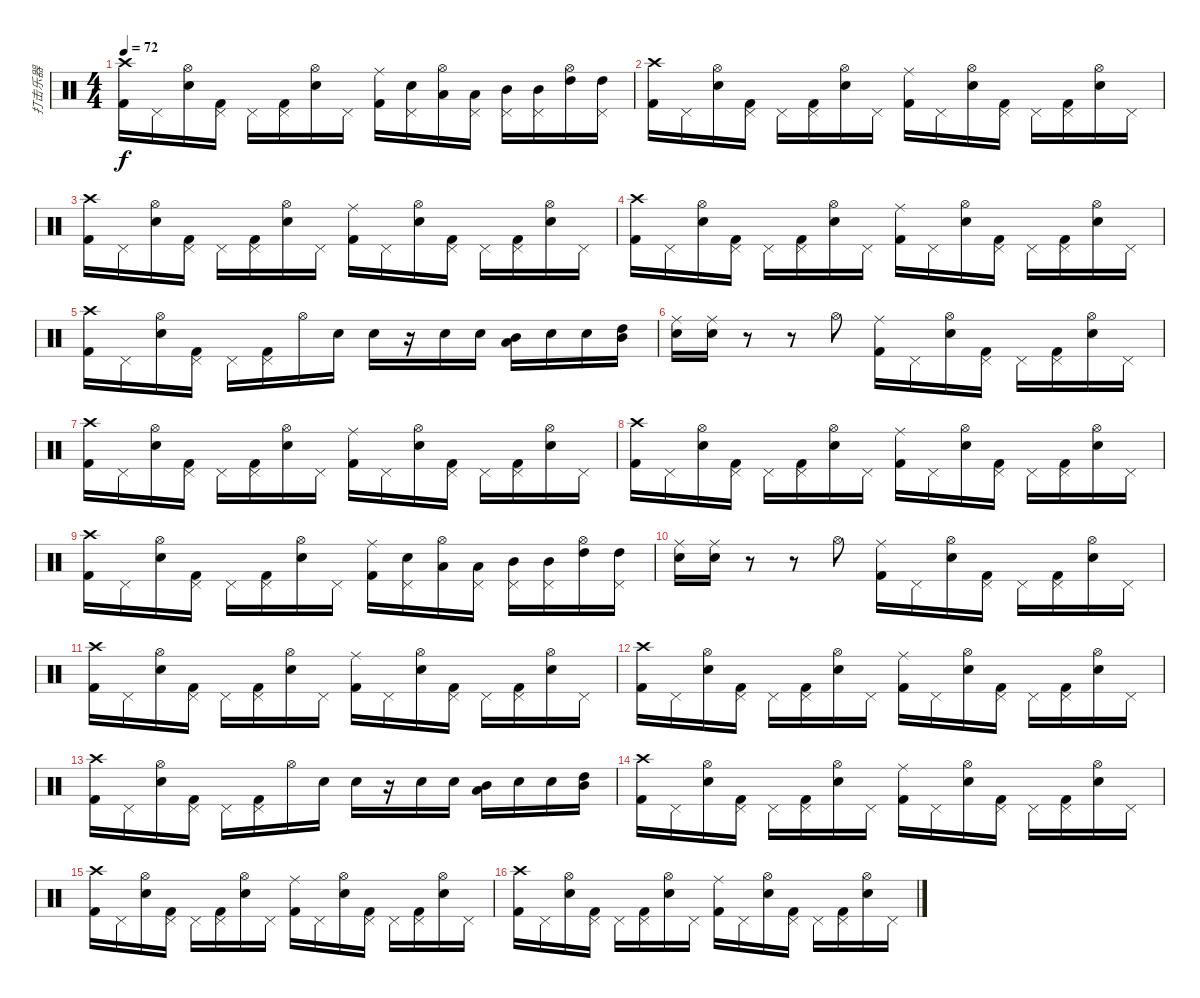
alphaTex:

\track ("打击乐器" "打击乐器") {instrument percussion}
\staff {score}
\articulation defaults
\ts (4 4)
\tempo 72
\clef neutral
\ks c
("Crash high (hit)" "Kick (hit) 2").16{dy f} "Pedal Hi-Hat (hit)".16 ("Hi-Hat (open)" "Electric Snare (hit)").16 ("Pedal Hi-Hat (hit)" "Kick (hit) 2").16 "Pedal Hi-Hat (hit)".16 ("Pedal Hi-Hat (hit)" "Kick (hit) 2").16 ("Hi-Hat (open)" "Electric Snare (hit)").16 "Pedal Hi-Hat (hit)".16 ("Ride (middle)" "Kick (hit) 2").16 ("Pedal Hi-Hat (hit)" "Electric Snare (hit)").16 ("Hi-Hat (open)" "Low Tom (hit)").16 ("Pedal Hi-Hat (hit)" "Low Tom (hit)").16 ("Pedal Hi-Hat (hit)" "Mid Tom (hit)").16 ("Pedal Hi-Hat (hit)" "Mid Tom (hit)").16 ("Hi-Hat (open)" "High Tom (hit)").16 ("Pedal Hi-Hat (hit)" "High Tom (hit)").16 |
("Crash high (hit)" "Kick (hit) 2").16 "Pedal Hi-Hat (hit)".16 ("Hi-Hat (open)" "Electric Snare (hit)").16 ("Pedal Hi-Hat (hit)" "Kick (hit) 2").16 "Pedal Hi-Hat (hit)".16 ("Pedal Hi-Hat (hit)" "Kick (hit) 2").16 ("Hi-Hat (open)" "Electric Snare (hit)").16 "Pedal Hi-Hat (hit)".16 ("Ride (middle)" "Kick (hit) 2").16 "Pedal Hi-Hat (hit)".16 ("Hi-Hat (open)" "Electric Snare (hit)").16 ("Pedal Hi-Hat (hit)" "Kick (hit) 2").16 "Pedal Hi-Hat (hit)".16 ("Pedal Hi-Hat (hit)" "Kick (hit) 2").16 ("Hi-Hat (open)" "Electric Snare (hit)").16 "Pedal Hi-Hat (hit)".16 |
("Crash high (hit)" "Kick (hit) 2").16 "Pedal Hi-Hat (hit)".16 ("Hi-Hat (open)" "Electric Snare (hit)").16 ("Pedal Hi-Hat (hit)" "Kick (hit) 2").16 "Pedal Hi-Hat (hit)".16 ("Pedal Hi-Hat (hit)" "Kick (hit) 2").16 ("Hi-Hat (open)" "Electric Snare (hit)").16 "Pedal Hi-Hat (hit)".16 ("Ride (middle)" "Kick (hit) 2").16 "Pedal Hi-Hat (hit)".16 ("Hi-Hat (open)" "Electric Snare (hit)").16 ("Pedal Hi-Hat (hit)" "Kick (hit) 2").16 "Pedal Hi-Hat (hit)".16 ("Pedal Hi-Hat (hit)" "Kick (hit) 2").16 ("Hi-Hat (open)" "Electric Snare (hit)").16 "Pedal Hi-Hat (hit)".16 |
("Crash high (hit)" "Kick (hit) 2").16 "Pedal Hi-Hat (hit)".16 ("Hi-Hat (open)" "Electric Snare (hit)").16 ("Pedal Hi-Hat (hit)" "Kick (hit) 2").16 "Pedal Hi-Hat (hit)".16 ("Pedal Hi-Hat (hit)" "Kick (hit) 2").16 ("Hi-Hat (open)" "Electric Snare (hit)").16 "Pedal Hi-Hat (hit)".16 ("Ride (middle)" "Kick (hit) 2").16 "Pedal Hi-Hat (hit)".16 ("Hi-Hat (open)" "Electric Snare (hit)").16 ("Pedal Hi-Hat (hit)" "Kick (hit) 2").16 "Pedal Hi-Hat (hit)".16 ("Pedal Hi-Hat (hit)" "Kick (hit) 2").16 ("Hi-Hat (open)" "Electric Snare (hit)").16 "Pedal Hi-Hat (hit)".16 |
("Crash high (hit)" "Kick (hit) 2").16 "Pedal Hi-Hat (hit)".16 ("Hi-Hat (open)" "Electric Snare (hit)").16 ("Pedal Hi-Hat (hit)" "Kick (hit) 2").16 "Pedal Hi-Hat (hit)".16 ("Pedal Hi-Hat (hit)" "Kick (hit) 2").16 "Hi-Hat (open)".16 "Snare (hit) 2".16 "Snare (hit) 2".16 r.16 "Snare (hit) 2".16 "Snare (hit) 2".16 ("Mid Tom (hit)" "Low Tom (hit)").16 "Snare (hit) 2".16 "Snare (hit) 2".16 ("High Tom (hit)" "Mid Tom (hit)").16 |
("Ride (middle)" "Electric Snare (hit)").16 ("Ride (middle)" "Electric Snare (hit)").16 r.8 r.8 "Hi-Hat (open)".8 ("Ride (middle)" "Kick (hit) 2").16 "Pedal Hi-Hat (hit)".16 ("Hi-Hat (open)" "Electric Snare (hit)").16 ("Pedal Hi-Hat (hit)" "Kick (hit) 2").16 "Pedal Hi-Hat (hit)".16 ("Pedal Hi-Hat (hit)" "Kick (hit) 2").16 ("Hi-Hat (open)" "Electric Snare (hit)").16 "Pedal Hi-Hat (hit)".16 |
("Crash high (hit)" "Kick (hit) 2").16 "Pedal Hi-Hat (hit)".16 ("Hi-Hat (open)" "Electric Snare (hit)").16 ("Pedal Hi-Hat (hit)" "Kick (hit) 2").16 "Pedal Hi-Hat (hit)".16 ("Pedal Hi-Hat (hit)" "Kick (hit) 2").16 ("Hi-Hat (open)" "Electric Snare (hit)").16 "Pedal Hi-Hat (hit)".16 ("Ride (middle)" "Kick (hit) 2").16 "Pedal Hi-Hat (hit)".16 ("Hi-Hat (open)" "Electric Snare (hit)").16 ("Pedal Hi-Hat (hit)" "Kick (hit) 2").16 "Pedal Hi-Hat (hit)".16 ("Pedal Hi-Hat (hit)" "Kick (hit) 2").16 ("Hi-Hat (open)" "Electric Snare (hit)").16 "Pedal Hi-Hat (hit)".16 |
("Crash high (hit)" "Kick (hit) 2").16 "Pedal Hi-Hat (hit)".16 ("Hi-Hat (open)" "Electric Snare (hit)").16 ("Pedal Hi-Hat (hit)" "Kick (hit) 2").16 "Pedal Hi-Hat (hit)".16 ("Pedal Hi-Hat (hit)" "Kick (hit) 2").16 ("Hi-Hat (open)" "Electric Snare (hit)").16 "Pedal Hi-Hat (hit)".16 ("Ride (middle)" "Kick (hit) 2").16 "Pedal Hi-Hat (hit)".16 ("Hi-Hat (open)" "Electric Snare (hit)").16 ("Pedal Hi-Hat (hit)" "Kick (hit) 2").16 "Pedal Hi-Hat (hit)".16 ("Pedal Hi-Hat (hit)" "Kick (hit) 2").16 ("Hi-Hat (open)" "Electric Snare (hit)").16 "Pedal Hi-Hat (hit)".16 |
("Crash high (hit)" "Kick (hit) 2").16 "Pedal Hi-Hat (hit)".16 ("Hi-Hat (open)" "Electric Snare (hit)").16 ("Pedal Hi-Hat (hit)" "Kick (hit) 2").16 "Pedal Hi-Hat (hit)".16 ("Pedal Hi-Hat (hit)" "Kick (hit) 2").16 ("Hi-Hat (open)" "Electric Snare (hit)").16 "Pedal Hi-Hat (hit)".16 ("Ride (middle)" "Kick (hit) 2").16 ("Pedal Hi-Hat (hit)" "Electric Snare (hit)").16 ("Hi-Hat (open)" "Low Tom (hit)").16 ("Pedal Hi-Hat (hit)" "Low Tom (hit)").16 ("Pedal Hi-Hat (hit)" "Mid Tom (hit)").16 ("Pedal Hi-Hat (hit)" "Mid Tom (hit)").16 ("Hi-Hat (open)" "High Tom (hit)").16 ("Pedal Hi-Hat (hit)" "High Tom (hit)").16 |
("Ride (middle)" "Electric Snare (hit)").16 ("Ride (middle)" "Electric Snare (hit)").16 r.8 r.8 "Hi-Hat (open)".8 ("Ride (middle)" "Kick (hit) 2").16 "Pedal Hi-Hat (hit)".16 ("Hi-Hat (open)" "Electric Snare (hit)").16 ("Pedal Hi-Hat (hit)" "Kick (hit) 2").16 "Pedal Hi-Hat (hit)".16 ("Pedal Hi-Hat (hit)" "Kick (hit) 2").16 ("Hi-Hat (open)" "Electric Snare (hit)").16 "Pedal Hi-Hat (hit)".16 |
("Crash high (hit)" "Kick (hit) 2").16 "Pedal Hi-Hat (hit)".16 ("Hi-Hat (open)" "Electric Snare (hit)").16 ("Pedal Hi-Hat (hit)" "Kick (hit) 2").16 "Pedal Hi-Hat (hit)".16 ("Pedal Hi-Hat (hit)" "Kick (hit) 2").16 ("Hi-Hat (open)" "Electric Snare (hit)").16 "Pedal Hi-Hat (hit)".16 ("Ride (middle)" "Kick (hit) 2").16 "Pedal Hi-Hat (hit)".16 ("Hi-Hat (open)" "Electric Snare (hit)").16 ("Pedal Hi-Hat (hit)" "Kick (hit) 2").16 "Pedal Hi-Hat (hit)".16 ("Pedal Hi-Hat (hit)" "Kick (hit) 2").16 ("Hi-Hat (open)" "Electric Snare (hit)").16 "Pedal Hi-Hat (hit)".16 |
("Crash high (hit)" "Kick (hit) 2").16 "Pedal Hi-Hat (hit)".16 ("Hi-Hat (open)" "Electric Snare (hit)").16 ("Pedal Hi-Hat (hit)" "Kick (hit) 2").16 "Pedal Hi-Hat (hit)".16 ("Pedal Hi-Hat (hit)" "Kick (hit) 2").16 ("Hi-Hat (open)" "Electric Snare (hit)").16 "Pedal Hi-Hat (hit)".16 ("Ride (middle)" "Kick (hit) 2").16 "Pedal Hi-Hat (hit)".16 ("Hi-Hat (open)" "Electric Snare (hit)").16 ("Pedal Hi-Hat (hit)" "Kick (hit) 2").16 "Pedal Hi-Hat (hit)".16 ("Pedal Hi-Hat (hit)" "Kick (hit) 2").16 ("Hi-Hat (open)" "Electric Snare (hit)").16 "Pedal Hi-Hat (hit)".16 |
("Crash high (hit)" "Kick (hit) 2").16 "Pedal Hi-Hat (hit)".16 ("Hi-Hat (open)" "Electric Snare (hit)").16 ("Pedal Hi-Hat (hit)" "Kick (hit) 2").16 "Pedal Hi-Hat (hit)".16 ("Pedal Hi-Hat (hit)" "Kick (hit) 2").16 "Hi-Hat (open)".16 "Snare (hit) 2".16 "Snare (hit) 2".16 r.16 "Snare (hit) 2".16 "Snare (hit) 2".16 ("Mid Tom (hit)" "Low Tom (hit)").16 "Snare (hit) 2".16 "Snare (hit) 2".16 ("High Tom (hit)" "Mid Tom (hit)").16 |
("Crash high (hit)" "Kick (hit) 2").16 "Pedal Hi-Hat (hit)".16 ("Hi-Hat (open)" "Electric Snare (hit)").16 ("Pedal Hi-Hat (hit)" "Kick (hit) 2").16 "Pedal Hi-Hat (hit)".16 ("Pedal Hi-Hat (hit)" "Kick (hit) 2").16 ("Hi-Hat (open)" "Electric Snare (hit)").16 "Pedal Hi-Hat (hit)".16 ("Ride (middle)" "Kick (hit) 2").16 "Pedal Hi-Hat (hit)".16 ("Hi-Hat (open)" "Electric Snare (hit)").16 ("Pedal Hi-Hat (hit)" "Kick (hit) 2").16 "Pedal Hi-Hat (hit)".16 ("Pedal Hi-Hat (hit)" "Kick (hit) 2").16 ("Hi-Hat (open)" "Electric Snare (hit)").16 "Pedal Hi-Hat (hit)".16 |
("Crash high (hit)" "Kick (hit) 2").16 "Pedal Hi-Hat (hit)".16 ("Hi-Hat (open)" "Electric Snare (hit)").16 ("Pedal Hi-Hat (hit)" "Kick (hit) 2").16 "Pedal Hi-Hat (hit)".16 ("Pedal Hi-Hat (hit)" "Kick (hit) 2").16 ("Hi-Hat (open)" "Electric Snare (hit)").16 "Pedal Hi-Hat (hit)".16 ("Ride (middle)" "Kick (hit) 2").16 "Pedal Hi-Hat (hit)".16 ("Hi-Hat (open)" "Electric Snare (hit)").16 ("Pedal Hi-Hat (hit)" "Kick (hit) 2").16 "Pedal Hi-Hat (hit)".16 ("Pedal Hi-Hat (hit)" "Kick (hit) 2").16 ("Hi-Hat (open)" "Electric Snare (hit)").16 "Pedal Hi-Hat (hit)".16 |
("Crash high (hit)" "Kick (hit) 2").16 "Pedal Hi-Hat (hit)".16 ("Hi-Hat (open)" "Electric Snare (hit)").16 ("Pedal Hi-Hat (hit)" "Kick (hit) 2").16 "Pedal Hi-Hat (hit)".16 ("Pedal Hi-Hat (hit)" "Kick (hit) 2").16 ("Hi-Hat (open)" "Electric Snare (hit)").16 "Pedal Hi-Hat (hit)".16 ("Ride (middle)" "Kick (hit) 2").16 "Pedal Hi-Hat (hit)".16 ("Hi-Hat (open)" "Electric Snare (hit)").16 ("Pedal Hi-Hat (hit)" "Kick (hit) 2").16 "Pedal Hi-Hat (hit)".16 ("Pedal Hi-Hat (hit)" "Kick (hit) 2").16 ("Hi-Hat (open)" "Electric Snare (hit)").16 "Pedal Hi-Hat (hit)".16
